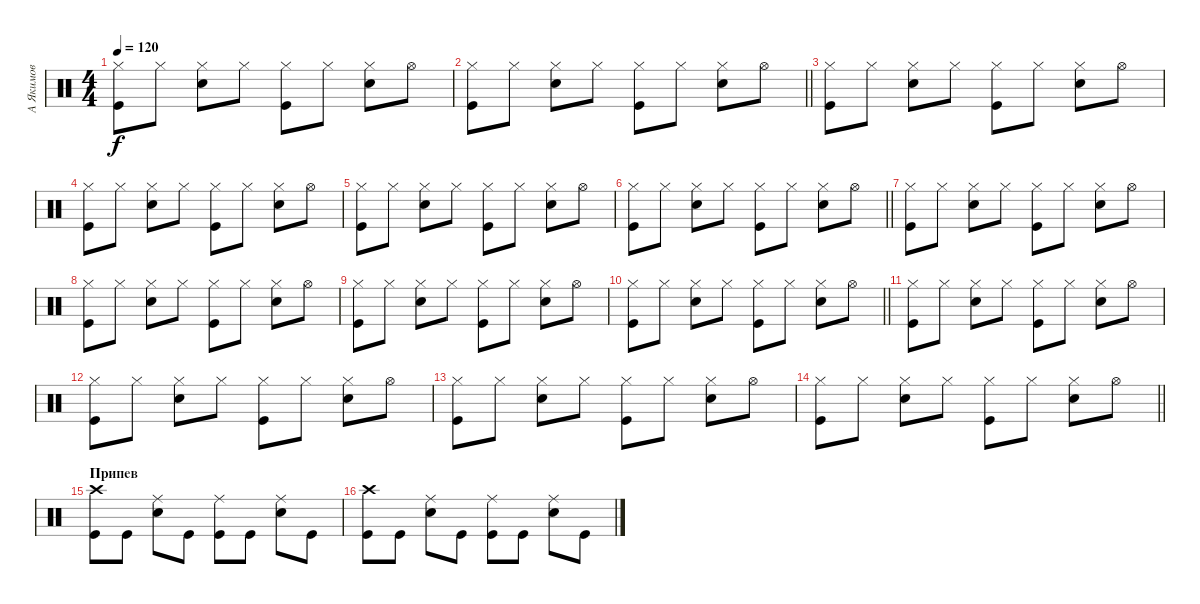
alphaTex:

\track ("А Якимов" "А Якимов") {instrument percussion}
\staff {score}
\articulation defaults
\ts (4 4)
\tempo 120
\clef neutral
\ks c
("Hi-Hat (closed)" "Kick (hit)").8{dy f} "Hi-Hat (closed)".8 ("Hi-Hat (closed)" "Snare (hit) 2").8 "Hi-Hat (closed)".8 ("Hi-Hat (closed)" "Kick (hit)").8 "Hi-Hat (closed)".8 ("Snare (hit) 2" "Hi-Hat (closed)").8 "Hi-Hat (open)".8 |
\barLineRight lightlight
("Hi-Hat (closed)" "Kick (hit)").8 "Hi-Hat (closed)".8 ("Hi-Hat (closed)" "Snare (hit) 2").8 "Hi-Hat (closed)".8 ("Hi-Hat (closed)" "Kick (hit)").8 "Hi-Hat (closed)".8 ("Snare (hit) 2" "Hi-Hat (closed)").8 "Hi-Hat (open)".8 |
("Hi-Hat (closed)" "Kick (hit)").8 "Hi-Hat (closed)".8 ("Hi-Hat (closed)" "Snare (hit) 2").8 "Hi-Hat (closed)".8 ("Hi-Hat (closed)" "Kick (hit)").8 "Hi-Hat (closed)".8 ("Snare (hit) 2" "Hi-Hat (closed)").8 "Hi-Hat (open)".8 |
("Hi-Hat (closed)" "Kick (hit)").8 "Hi-Hat (closed)".8 ("Hi-Hat (closed)" "Snare (hit) 2").8 "Hi-Hat (closed)".8 ("Hi-Hat (closed)" "Kick (hit)").8 "Hi-Hat (closed)".8 ("Snare (hit) 2" "Hi-Hat (closed)").8 "Hi-Hat (open)".8 |
("Hi-Hat (closed)" "Kick (hit)").8 "Hi-Hat (closed)".8 ("Hi-Hat (closed)" "Snare (hit) 2").8 "Hi-Hat (closed)".8 ("Hi-Hat (closed)" "Kick (hit)").8 "Hi-Hat (closed)".8 ("Snare (hit) 2" "Hi-Hat (closed)").8 "Hi-Hat (open)".8 |
\barLineRight lightlight
("Hi-Hat (closed)" "Kick (hit)").8 "Hi-Hat (closed)".8 ("Hi-Hat (closed)" "Snare (hit) 2").8 "Hi-Hat (closed)".8 ("Hi-Hat (closed)" "Kick (hit)").8 "Hi-Hat (closed)".8 ("Snare (hit) 2" "Hi-Hat (closed)").8 "Hi-Hat (open)".8 |
("Hi-Hat (closed)" "Kick (hit)").8 "Hi-Hat (closed)".8 ("Hi-Hat (closed)" "Snare (hit) 2").8 "Hi-Hat (closed)".8 ("Hi-Hat (closed)" "Kick (hit)").8 "Hi-Hat (closed)".8 ("Snare (hit) 2" "Hi-Hat (closed)").8 "Hi-Hat (open)".8 |
("Hi-Hat (closed)" "Kick (hit)").8 "Hi-Hat (closed)".8 ("Hi-Hat (closed)" "Snare (hit) 2").8 "Hi-Hat (closed)".8 ("Hi-Hat (closed)" "Kick (hit)").8 "Hi-Hat (closed)".8 ("Snare (hit) 2" "Hi-Hat (closed)").8 "Hi-Hat (open)".8 |
("Hi-Hat (closed)" "Kick (hit)").8 "Hi-Hat (closed)".8 ("Hi-Hat (closed)" "Snare (hit) 2").8 "Hi-Hat (closed)".8 ("Hi-Hat (closed)" "Kick (hit)").8 "Hi-Hat (closed)".8 ("Snare (hit) 2" "Hi-Hat (closed)").8 "Hi-Hat (open)".8 |
\barLineRight lightlight
("Hi-Hat (closed)" "Kick (hit)").8 "Hi-Hat (closed)".8 ("Hi-Hat (closed)" "Snare (hit) 2").8 "Hi-Hat (closed)".8 ("Hi-Hat (closed)" "Kick (hit)").8 "Hi-Hat (closed)".8 ("Snare (hit) 2" "Hi-Hat (closed)").8 "Hi-Hat (open)".8 |
("Hi-Hat (closed)" "Kick (hit)").8 "Hi-Hat (closed)".8 ("Hi-Hat (closed)" "Snare (hit) 2").8 "Hi-Hat (closed)".8 ("Hi-Hat (closed)" "Kick (hit)").8 "Hi-Hat (closed)".8 ("Snare (hit) 2" "Hi-Hat (closed)").8 "Hi-Hat (open)".8 |
("Hi-Hat (closed)" "Kick (hit)").8 "Hi-Hat (closed)".8 ("Hi-Hat (closed)" "Snare (hit) 2").8 "Hi-Hat (closed)".8 ("Hi-Hat (closed)" "Kick (hit)").8 "Hi-Hat (closed)".8 ("Snare (hit) 2" "Hi-Hat (closed)").8 "Hi-Hat (open)".8 |
("Hi-Hat (closed)" "Kick (hit)").8 "Hi-Hat (closed)".8 ("Hi-Hat (closed)" "Snare (hit) 2").8 "Hi-Hat (closed)".8 ("Hi-Hat (closed)" "Kick (hit)").8 "Hi-Hat (closed)".8 ("Snare (hit) 2" "Hi-Hat (closed)").8 "Hi-Hat (open)".8 |
\barLineRight lightlight
("Hi-Hat (closed)" "Kick (hit)").8 "Hi-Hat (closed)".8 ("Hi-Hat (closed)" "Snare (hit) 2").8 "Hi-Hat (closed)".8 ("Hi-Hat (closed)" "Kick (hit)").8 "Hi-Hat (closed)".8 ("Snare (hit) 2" "Hi-Hat (closed)").8 "Hi-Hat (open)".8 |
\section ("" "Припев")
("Crash high (hit)" "Kick (hit)").8 "Kick (hit)".8 ("Ride (middle)" "Snare (hit) 2").8 "Kick (hit)".8 ("Ride (middle)" "Kick (hit)").8 "Kick (hit)".8 ("Ride (middle)" "Snare (hit) 2").8 "Kick (hit)".8 |
("Crash high (hit)" "Kick (hit)").8 "Kick (hit)".8 ("Ride (middle)" "Snare (hit) 2").8 "Kick (hit)".8 ("Ride (middle)" "Kick (hit)").8 "Kick (hit)".8 ("Ride (middle)" "Snare (hit) 2").8 "Kick (hit)".8
